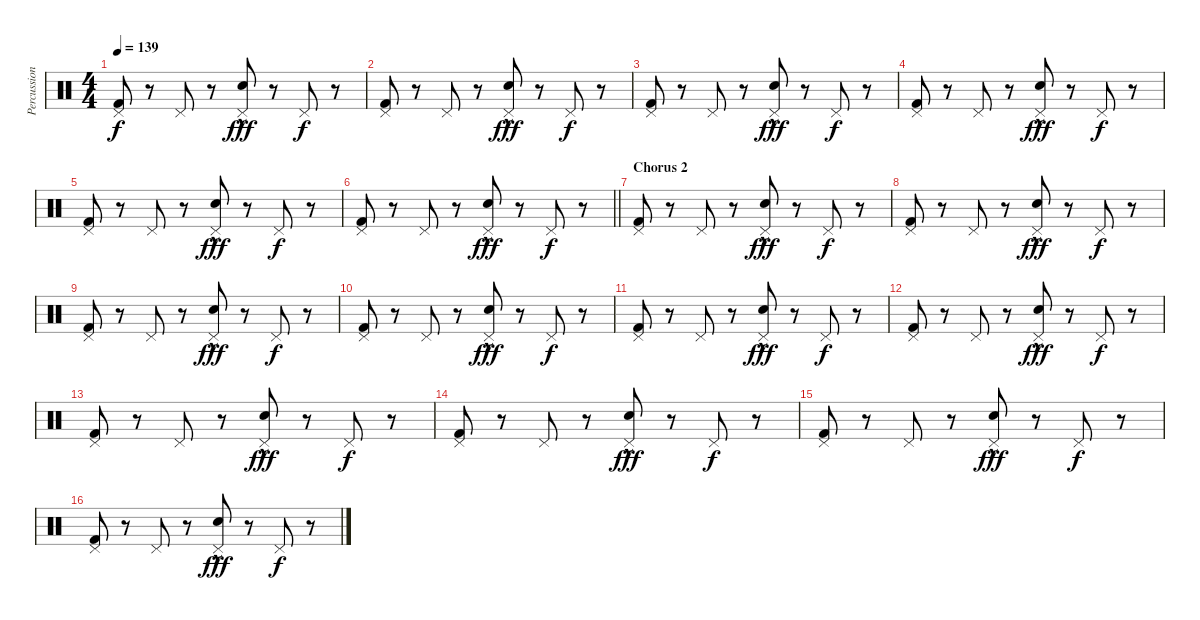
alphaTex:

\track ("Percussion" "Percussion") {instrument percussion}
\staff {score}
\articulation defaults
\ts (4 4)
\tempo 139
\clef neutral
\ks c
("Kick (hit) 2" "Pedal Hi-Hat (hit)").8{dy f} r.8 "Pedal Hi-Hat (hit)".8 r.8 ("Electric Snare (hit)"{hac} "Pedal Hi-Hat (hit)").8{dy fff} r.8 "Pedal Hi-Hat (hit)".8{dy f} r.8 |
("Kick (hit) 2" "Pedal Hi-Hat (hit)").8 r.8 "Pedal Hi-Hat (hit)".8 r.8 ("Electric Snare (hit)"{hac} "Pedal Hi-Hat (hit)").8{dy fff} r.8 "Pedal Hi-Hat (hit)".8{dy f} r.8 |
("Kick (hit) 2" "Pedal Hi-Hat (hit)").8 r.8 "Pedal Hi-Hat (hit)".8 r.8 ("Electric Snare (hit)"{hac} "Pedal Hi-Hat (hit)").8{dy fff} r.8 "Pedal Hi-Hat (hit)".8{dy f} r.8 |
("Kick (hit) 2" "Pedal Hi-Hat (hit)").8 r.8 "Pedal Hi-Hat (hit)".8 r.8 ("Electric Snare (hit)"{hac} "Pedal Hi-Hat (hit)").8{dy fff} r.8 "Pedal Hi-Hat (hit)".8{dy f} r.8 |
("Kick (hit) 2" "Pedal Hi-Hat (hit)").8 r.8 "Pedal Hi-Hat (hit)".8 r.8 ("Electric Snare (hit)"{hac} "Pedal Hi-Hat (hit)").8{dy fff} r.8 "Pedal Hi-Hat (hit)".8{dy f} r.8 |
\barLineRight lightlight
("Kick (hit) 2" "Pedal Hi-Hat (hit)").8 r.8 "Pedal Hi-Hat (hit)".8 r.8 ("Electric Snare (hit)"{hac} "Pedal Hi-Hat (hit)").8{dy fff} r.8 "Pedal Hi-Hat (hit)".8{dy f} r.8 |
\section ("" "Chorus 2")
("Kick (hit) 2" "Pedal Hi-Hat (hit)").8 r.8 "Pedal Hi-Hat (hit)".8 r.8 ("Electric Snare (hit)"{hac} "Pedal Hi-Hat (hit)").8{dy fff} r.8 "Pedal Hi-Hat (hit)".8{dy f} r.8 |
("Kick (hit) 2" "Pedal Hi-Hat (hit)").8 r.8 "Pedal Hi-Hat (hit)".8 r.8 ("Electric Snare (hit)"{hac} "Pedal Hi-Hat (hit)").8{dy fff} r.8 "Pedal Hi-Hat (hit)".8{dy f} r.8 |
("Kick (hit) 2" "Pedal Hi-Hat (hit)").8 r.8 "Pedal Hi-Hat (hit)".8 r.8 ("Electric Snare (hit)"{hac} "Pedal Hi-Hat (hit)").8{dy fff} r.8 "Pedal Hi-Hat (hit)".8{dy f} r.8 |
("Kick (hit) 2" "Pedal Hi-Hat (hit)").8 r.8 "Pedal Hi-Hat (hit)".8 r.8 ("Electric Snare (hit)"{hac} "Pedal Hi-Hat (hit)").8{dy fff} r.8 "Pedal Hi-Hat (hit)".8{dy f} r.8 |
("Kick (hit) 2" "Pedal Hi-Hat (hit)").8 r.8 "Pedal Hi-Hat (hit)".8 r.8 ("Electric Snare (hit)"{hac} "Pedal Hi-Hat (hit)").8{dy fff} r.8 "Pedal Hi-Hat (hit)".8{dy f} r.8 |
("Kick (hit) 2" "Pedal Hi-Hat (hit)").8 r.8 "Pedal Hi-Hat (hit)".8 r.8 ("Electric Snare (hit)"{hac} "Pedal Hi-Hat (hit)").8{dy fff} r.8 "Pedal Hi-Hat (hit)".8{dy f} r.8 |
("Kick (hit) 2" "Pedal Hi-Hat (hit)").8 r.8 "Pedal Hi-Hat (hit)".8 r.8 ("Electric Snare (hit)"{hac} "Pedal Hi-Hat (hit)").8{dy fff} r.8 "Pedal Hi-Hat (hit)".8{dy f} r.8 |
("Kick (hit) 2" "Pedal Hi-Hat (hit)").8 r.8 "Pedal Hi-Hat (hit)".8 r.8 ("Electric Snare (hit)"{hac} "Pedal Hi-Hat (hit)").8{dy fff} r.8 "Pedal Hi-Hat (hit)".8{dy f} r.8 |
("Kick (hit) 2" "Pedal Hi-Hat (hit)").8 r.8 "Pedal Hi-Hat (hit)".8 r.8 ("Electric Snare (hit)"{hac} "Pedal Hi-Hat (hit)").8{dy fff} r.8 "Pedal Hi-Hat (hit)".8{dy f} r.8 |
("Kick (hit) 2" "Pedal Hi-Hat (hit)").8 r.8 "Pedal Hi-Hat (hit)".8 r.8 ("Electric Snare (hit)"{hac} "Pedal Hi-Hat (hit)").8{dy fff} r.8 "Pedal Hi-Hat (hit)".8{dy f} r.8
